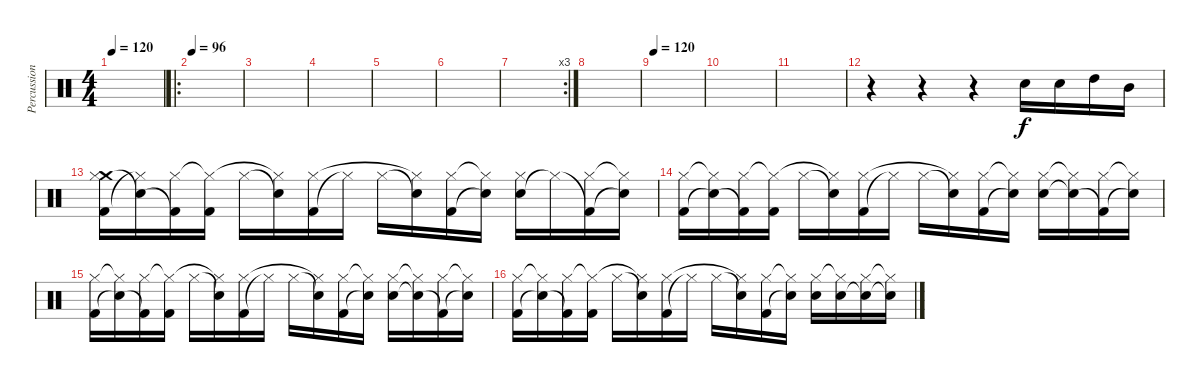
\track ("Percussions" "Percussion") {instrument percussion}
\staff {score}
\articulation defaults
\ts (4 4)
\tempo 120
\clef neutral
\ks c
|
\ro
\tempo 96
|
|
|
|
|
\rc 3
|
|
\tempo 120
|
|
|
r.4 r.4 r.4 "Electric Snare (hit)".16 "Electric Snare (hit)".16 "High Tom (hit)".16 "Mid Tom (hit)".16 |
("Crash medium (hit)" "Kick (hit) 2" "Hi-Hat (closed)").16 ("Snare (hit)"{t} "Hi-Hat (closed)"{t}).16 ("Kick (hit) 2"{t} "Hi-Hat (closed)").16 ("Kick (hit) 2" "Hi-Hat (closed)"{t}).16 "Hi-Hat (closed)".16 ("Snare (hit)"{t} "Hi-Hat (closed)"{t}).16 ("Kick (hit) 2" "Hi-Hat (closed)").16 "Hi-Hat (closed)"{t}.16 "Hi-Hat (closed)".16 ("Snare (hit)"{t} "Hi-Hat (closed)"{t}).16 ("Kick (hit) 2" "Hi-Hat (closed)").16 ("Snare (hit)"{t} "Hi-Hat (closed)"{t}).16 ("Electric Snare (hit)" "Hi-Hat (closed)").16 "Hi-Hat (closed)"{t}.16 ("Kick (hit) 2"{t} "Hi-Hat (closed)").16 ("Snare (hit)"{t} "Hi-Hat (closed)"{t}).16 |
("Kick (hit) 2" "Hi-Hat (closed)").16 ("Snare (hit)"{t} "Hi-Hat (closed)"{t}).16 ("Kick (hit) 2"{t} "Hi-Hat (closed)").16 ("Kick (hit) 2" "Hi-Hat (closed)"{t}).16 "Hi-Hat (closed)".16 ("Snare (hit)"{t} "Hi-Hat (closed)"{t}).16 ("Kick (hit) 2" "Hi-Hat (closed)").16 "Hi-Hat (closed)"{t}.16 "Hi-Hat (closed)".16 ("Snare (hit)"{t} "Hi-Hat (closed)"{t}).16 ("Kick (hit) 2" "Hi-Hat (closed)").16 ("Snare (hit)"{t} "Hi-Hat (closed)"{t}).16 ("Electric Snare (hit)" "Hi-Hat (closed)").16 ("Snare (hit)"{t} "Hi-Hat (closed)"{t}).16 ("Kick (hit) 2"{t} "Hi-Hat (closed)").16 ("Snare (hit)"{t} "Hi-Hat (closed)"{t}).16 |
("Kick (hit) 2" "Hi-Hat (closed)").16 ("Snare (hit)"{t} "Hi-Hat (closed)"{t}).16 ("Kick (hit) 2"{t} "Hi-Hat (closed)").16 ("Kick (hit) 2" "Hi-Hat (closed)"{t}).16 "Hi-Hat (closed)".16 ("Snare (hit)"{t} "Hi-Hat (closed)"{t}).16 ("Kick (hit) 2" "Hi-Hat (closed)").16 "Hi-Hat (closed)"{t}.16 "Hi-Hat (closed)".16 ("Snare (hit)"{t} "Hi-Hat (closed)"{t}).16 ("Kick (hit) 2" "Hi-Hat (closed)").16 ("Snare (hit)"{t} "Hi-Hat (closed)"{t}).16 ("Electric Snare (hit)" "Hi-Hat (closed)").16 ("Snare (hit)"{t} "Hi-Hat (closed)"{t}).16 ("Kick (hit) 2"{t} "Hi-Hat (closed)").16 ("Snare (hit)"{t} "Hi-Hat (closed)"{t}).16 |
("Kick (hit) 2" "Hi-Hat (closed)").16 ("Snare (hit)"{t} "Hi-Hat (closed)"{t}).16 ("Kick (hit) 2"{t} "Hi-Hat (closed)").16 ("Kick (hit) 2" "Hi-Hat (closed)"{t}).16 "Hi-Hat (closed)".16 ("Snare (hit)"{t} "Hi-Hat (closed)"{t}).16 ("Kick (hit) 2" "Hi-Hat (closed)").16 "Hi-Hat (closed)"{t}.16 "Hi-Hat (closed)".16 ("Snare (hit)"{t} "Hi-Hat (closed)"{t}).16 ("Kick (hit) 2" "Hi-Hat (closed)").16 ("Snare (hit)"{t} "Hi-Hat (closed)"{t}).16 ("Electric Snare (hit)" "Hi-Hat (closed)").16 ("Electric Snare (hit)" "Hi-Hat (closed)"{t}).16 ("Electric Snare (hit)"{t} "Hi-Hat (closed)").16 ("Snare (hit)"{t} "Hi-Hat (closed)"{t}).16
